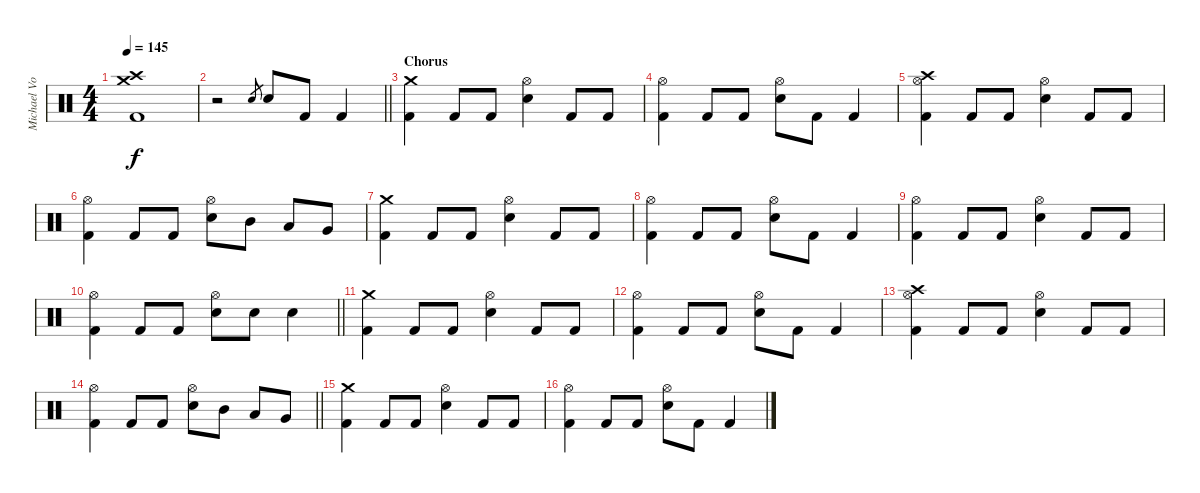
\track ("Michael Von Knorring" "Michael Vo") {instrument percussion}
\staff {score}
\articulation defaults
\ts (4 4)
\tempo 145
\clef neutral
\ks c
("Crash high (hit)" "Crash medium (hit)" "Kick (hit) 2").1{dy f} |
\barLineRight lightlight
r.2 "Snare (hit) 2".8{gr} "Snare (hit) 2".8 "Kick (hit) 2".8 "Kick (hit) 2".4 |
\section ("" "Chorus")
("Crash medium (hit)" "Kick (hit) 2").4 "Kick (hit) 2".8 "Kick (hit) 2".8 ("Hi-Hat (open)" "Snare (hit) 2").4 "Kick (hit) 2".8 "Kick (hit) 2".8 |
("Hi-Hat (open)" "Kick (hit) 2").4 "Kick (hit) 2".8 "Kick (hit) 2".8 ("Hi-Hat (open)" "Snare (hit) 2").8 "Kick (hit) 2".8 "Kick (hit) 2".4 |
("Crash high (hit)" "Hi-Hat (open)" "Kick (hit) 2").4 "Kick (hit) 2".8 "Kick (hit) 2".8 ("Hi-Hat (open)" "Snare (hit) 2").4 "Kick (hit) 2".8 "Kick (hit) 2".8 |
("Hi-Hat (open)" "Kick (hit) 2").4 "Kick (hit) 2".8 "Kick (hit) 2".8 ("Hi-Hat (open)" "Snare (hit) 2").8 "Mid Tom (hit)".8 "Low Tom (hit)".8 "Very Low Tom (hit)".8 |
("Crash medium (hit)" "Kick (hit) 2").4 "Kick (hit) 2".8 "Kick (hit) 2".8 ("Hi-Hat (open)" "Snare (hit) 2").4 "Kick (hit) 2".8 "Kick (hit) 2".8 |
("Hi-Hat (open)" "Kick (hit) 2").4 "Kick (hit) 2".8 "Kick (hit) 2".8 ("Hi-Hat (open)" "Snare (hit) 2").8 "Kick (hit) 2".8 "Kick (hit) 2".4 |
("Hi-Hat (open)" "Kick (hit) 2").4 "Kick (hit) 2".8 "Kick (hit) 2".8 ("Hi-Hat (open)" "Snare (hit) 2").4 "Kick (hit) 2".8 "Kick (hit) 2".8 |
\barLineRight lightlight
("Hi-Hat (open)" "Kick (hit) 2").4 "Kick (hit) 2".8 "Kick (hit) 2".8 ("Hi-Hat (open)" "Snare (hit) 2").8 "Snare (hit) 2".8 "Snare (hit) 2".4 |
("Crash medium (hit)" "Kick (hit) 2").4 "Kick (hit) 2".8 "Kick (hit) 2".8 ("Hi-Hat (open)" "Snare (hit) 2").4 "Kick (hit) 2".8 "Kick (hit) 2".8 |
("Hi-Hat (open)" "Kick (hit) 2").4 "Kick (hit) 2".8 "Kick (hit) 2".8 ("Hi-Hat (open)" "Snare (hit) 2").8 "Kick (hit) 2".8 "Kick (hit) 2".4 |
("Crash high (hit)" "Hi-Hat (open)" "Kick (hit) 2").4 "Kick (hit) 2".8 "Kick (hit) 2".8 ("Hi-Hat (open)" "Snare (hit) 2").4 "Kick (hit) 2".8 "Kick (hit) 2".8 |
\barLineRight lightlight
("Hi-Hat (open)" "Kick (hit) 2").4 "Kick (hit) 2".8 "Kick (hit) 2".8 ("Hi-Hat (open)" "Snare (hit) 2").8 "Mid Tom (hit)".8 "Low Tom (hit)".8 "Very Low Tom (hit)".8 |
("Crash medium (hit)" "Kick (hit) 2").4 "Kick (hit) 2".8 "Kick (hit) 2".8 ("Hi-Hat (open)" "Snare (hit) 2").4 "Kick (hit) 2".8 "Kick (hit) 2".8 |
("Hi-Hat (open)" "Kick (hit) 2").4 "Kick (hit) 2".8 "Kick (hit) 2".8 ("Hi-Hat (open)" "Snare (hit) 2").8 "Kick (hit) 2".8 "Kick (hit) 2".4
